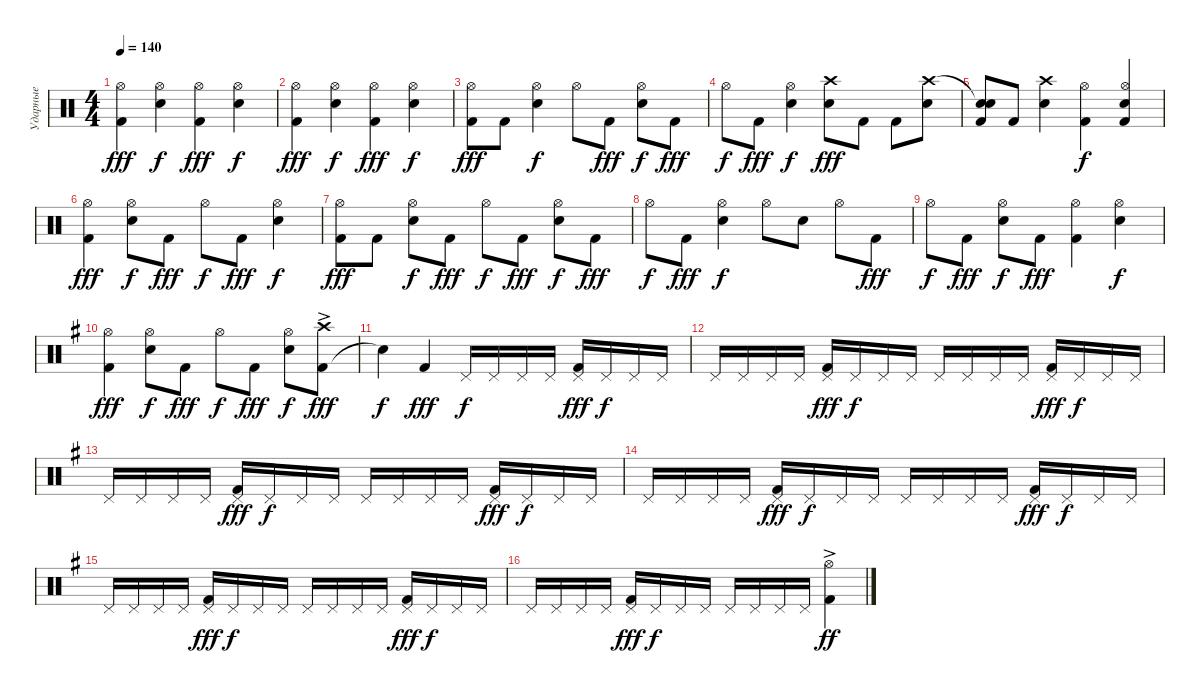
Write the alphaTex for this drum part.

\track ("Ударные" "Ударные") {instrument percussion}
\staff {score}
\articulation defaults
\ts (4 4)
\tempo 140
\clef neutral
\ks c
("Kick (hit) 2" "Hi-Hat (open)").4{dy fff} ("Snare (hit) 2" "Hi-Hat (open)").4{dy f} ("Kick (hit) 2" "Hi-Hat (open)").4{dy fff} ("Snare (hit) 2" "Hi-Hat (open)").4{dy f} |
("Kick (hit) 2" "Hi-Hat (open)").4{dy fff} ("Snare (hit) 2" "Hi-Hat (open)").4{dy f} ("Kick (hit) 2" "Hi-Hat (open)").4{dy fff} ("Snare (hit) 2" "Hi-Hat (open)").4{dy f} |
("Kick (hit) 2" "Hi-Hat (open)").8{dy fff} "Kick (hit) 2".8 ("Snare (hit) 2" "Hi-Hat (open)").4{dy f} "Hi-Hat (open)".8 "Kick (hit) 2".8{dy fff} ("Snare (hit) 2" "Hi-Hat (open)").8{dy f} "Kick (hit) 2".8{dy fff} |
"Hi-Hat (open)".8{dy f} "Kick (hit) 2".8{dy fff} ("Snare (hit) 2" "Hi-Hat (open)").4{dy f} ("Snare (hit) 2" "Crash high (hit)").8{dy fff} "Kick (hit) 2".8 "Kick (hit) 2".8 ("Snare (hit) 2" "Crash high (hit)").8 |
("Kick (hit) 2" "Snare (hit) 2"{t} "Snare (hit)").8 "Kick (hit) 2".8 ("Snare (hit) 2" "Crash high (hit)").4 ("Kick (hit) 2" "Hi-Hat (open)").4{dy f} ("Kick (hit) 2" "Snare (hit) 2" "Hi-Hat (open)").4 |
("Kick (hit) 2" "Hi-Hat (open)").4{dy fff} ("Snare (hit) 2" "Hi-Hat (open)").8{dy f} "Kick (hit) 2".8{dy fff} "Hi-Hat (open)".8{dy f} "Kick (hit) 2".8{dy fff} ("Snare (hit) 2" "Hi-Hat (open)").4{dy f} |
("Kick (hit) 2" "Hi-Hat (open)").8{dy fff} "Kick (hit) 2".8 ("Snare (hit) 2" "Hi-Hat (open)").8{dy f} "Kick (hit) 2".8{dy fff} "Hi-Hat (open)".8{dy f} "Kick (hit) 2".8{dy fff} ("Snare (hit) 2" "Hi-Hat (open)").8{dy f} "Kick (hit) 2".8{dy fff} |
"Hi-Hat (open)".8{dy f} "Kick (hit) 2".8{dy fff} ("Snare (hit) 2" "Hi-Hat (open)").4{dy f} "Hi-Hat (open)".8 "Snare (hit) 2".8 "Hi-Hat (open)".8 "Kick (hit) 2".8{dy fff} |
"Hi-Hat (open)".8{dy f} "Kick (hit) 2".8{dy fff} ("Snare (hit) 2" "Hi-Hat (open)").8{dy f} "Kick (hit) 2".8{dy fff} ("Kick (hit) 2" "Hi-Hat (open)").4 ("Snare (hit) 2" "Hi-Hat (open)").4{dy f} |
\ks g
("Kick (hit) 2" "Hi-Hat (open)").4{dy fff} ("Snare (hit) 2" "Hi-Hat (open)").8{dy f} "Kick (hit) 2".8{dy fff} "Hi-Hat (open)".8{dy f} "Kick (hit) 2".8{dy fff} ("Snare (hit) 2" "Hi-Hat (open)").8{dy f} ("Kick (hit) 2"{ac} "Crash high (hit)"{ac}).8{dy fff} |
"Snare (hit)"{t}.4{dy f} "Kick (hit) 2".4{dy fff} "Pedal Hi-Hat (hit)".16{dy f} "Pedal Hi-Hat (hit)".16 "Pedal Hi-Hat (hit)".16 "Pedal Hi-Hat (hit)".16 ("Pedal Hi-Hat (hit)" "Kick (hit) 2").16{dy fff} "Pedal Hi-Hat (hit)".16{dy f} "Pedal Hi-Hat (hit)".16 "Pedal Hi-Hat (hit)".16 |
"Pedal Hi-Hat (hit)".16 "Pedal Hi-Hat (hit)".16 "Pedal Hi-Hat (hit)".16 "Pedal Hi-Hat (hit)".16 ("Pedal Hi-Hat (hit)" "Kick (hit) 2").16{dy fff} "Pedal Hi-Hat (hit)".16{dy f} "Pedal Hi-Hat (hit)".16 "Pedal Hi-Hat (hit)".16 "Pedal Hi-Hat (hit)".16 "Pedal Hi-Hat (hit)".16 "Pedal Hi-Hat (hit)".16 "Pedal Hi-Hat (hit)".16 ("Pedal Hi-Hat (hit)" "Kick (hit) 2").16{dy fff} "Pedal Hi-Hat (hit)".16{dy f} "Pedal Hi-Hat (hit)".16 "Pedal Hi-Hat (hit)".16 |
"Pedal Hi-Hat (hit)".16 "Pedal Hi-Hat (hit)".16 "Pedal Hi-Hat (hit)".16 "Pedal Hi-Hat (hit)".16 ("Pedal Hi-Hat (hit)" "Kick (hit) 2").16{dy fff} "Pedal Hi-Hat (hit)".16{dy f} "Pedal Hi-Hat (hit)".16 "Pedal Hi-Hat (hit)".16 "Pedal Hi-Hat (hit)".16 "Pedal Hi-Hat (hit)".16 "Pedal Hi-Hat (hit)".16 "Pedal Hi-Hat (hit)".16 ("Pedal Hi-Hat (hit)" "Kick (hit) 2").16{dy fff} "Pedal Hi-Hat (hit)".16{dy f} "Pedal Hi-Hat (hit)".16 "Pedal Hi-Hat (hit)".16 |
"Pedal Hi-Hat (hit)".16 "Pedal Hi-Hat (hit)".16 "Pedal Hi-Hat (hit)".16 "Pedal Hi-Hat (hit)".16 ("Pedal Hi-Hat (hit)" "Kick (hit) 2").16{dy fff} "Pedal Hi-Hat (hit)".16{dy f} "Pedal Hi-Hat (hit)".16 "Pedal Hi-Hat (hit)".16 "Pedal Hi-Hat (hit)".16 "Pedal Hi-Hat (hit)".16 "Pedal Hi-Hat (hit)".16 "Pedal Hi-Hat (hit)".16 ("Pedal Hi-Hat (hit)" "Kick (hit) 2").16{dy fff} "Pedal Hi-Hat (hit)".16{dy f} "Pedal Hi-Hat (hit)".16 "Pedal Hi-Hat (hit)".16 |
"Pedal Hi-Hat (hit)".16 "Pedal Hi-Hat (hit)".16 "Pedal Hi-Hat (hit)".16 "Pedal Hi-Hat (hit)".16 ("Pedal Hi-Hat (hit)" "Kick (hit) 2").16{dy fff} "Pedal Hi-Hat (hit)".16{dy f} "Pedal Hi-Hat (hit)".16 "Pedal Hi-Hat (hit)".16 "Pedal Hi-Hat (hit)".16 "Pedal Hi-Hat (hit)".16 "Pedal Hi-Hat (hit)".16 "Pedal Hi-Hat (hit)".16 ("Pedal Hi-Hat (hit)" "Kick (hit) 2").16{dy fff} "Pedal Hi-Hat (hit)".16{dy f} "Pedal Hi-Hat (hit)".16 "Pedal Hi-Hat (hit)".16 |
"Pedal Hi-Hat (hit)".16 "Pedal Hi-Hat (hit)".16 "Pedal Hi-Hat (hit)".16 "Pedal Hi-Hat (hit)".16 ("Pedal Hi-Hat (hit)" "Kick (hit) 2").16{dy fff} "Pedal Hi-Hat (hit)".16{dy f} "Pedal Hi-Hat (hit)".16 "Pedal Hi-Hat (hit)".16 "Pedal Hi-Hat (hit)".16 "Pedal Hi-Hat (hit)".16 "Pedal Hi-Hat (hit)".16 "Pedal Hi-Hat (hit)".16 ("Kick (hit) 2"{ac} "Hi-Hat (open)"{ac}).4{dy ff}
